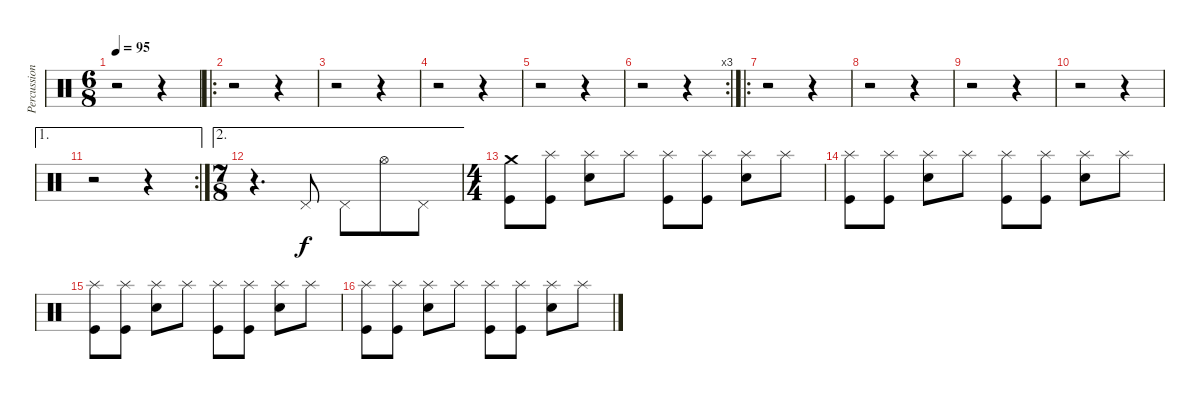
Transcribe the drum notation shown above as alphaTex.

\track ("Percussions" "Percussion") {instrument percussion}
\staff {score}
\articulation defaults
\ts (6 8)
\tempo 95
\clef neutral
\ks c
r.2{dy f} r.4 |
\ro
r.2 r.4 |
r.2 r.4 |
r.2 r.4 |
r.2 r.4 |
\rc 3
r.2 r.4 |
\ro
r.2 r.4 |
r.2 r.4 |
r.2 r.4 |
r.2 r.4 |
\ae 1
\rc 2
r.2 r.4 |
\ae 2
\ts (7 8)
r.4{d} "Pedal Hi-Hat (hit)".8 "Pedal Hi-Hat (hit)".8 "Hi-Hat (open)".8 "Pedal Hi-Hat (hit)".8 |
\ts (4 4)
("Crash medium (hit)" "Kick (hit)").8 ("Splash (hit)" "Kick (hit)").8 ("Splash (hit)" "Electric Snare (hit)").8 "Splash (hit)".8 ("Splash (hit)" "Kick (hit)").8 ("Splash (hit)" "Kick (hit)").8 ("Splash (hit)" "Electric Snare (hit)").8 "Splash (hit)".8 |
("Splash (hit)" "Kick (hit)").8 ("Splash (hit)" "Kick (hit)").8 ("Splash (hit)" "Electric Snare (hit)").8 "Splash (hit)".8 ("Splash (hit)" "Kick (hit)").8 ("Splash (hit)" "Kick (hit)").8 ("Splash (hit)" "Electric Snare (hit)").8 "Splash (hit)".8 |
("Splash (hit)" "Kick (hit)").8 ("Splash (hit)" "Kick (hit)").8 ("Splash (hit)" "Electric Snare (hit)").8 "Splash (hit)".8 ("Splash (hit)" "Kick (hit)").8 ("Splash (hit)" "Kick (hit)").8 ("Splash (hit)" "Electric Snare (hit)").8 "Splash (hit)".8 |
("Splash (hit)" "Kick (hit)").8 ("Splash (hit)" "Kick (hit)").8 ("Splash (hit)" "Electric Snare (hit)").8 "Splash (hit)".8 ("Splash (hit)" "Kick (hit)").8 ("Splash (hit)" "Kick (hit)").8 ("Splash (hit)" "Electric Snare (hit)").8 "Splash (hit)".8
